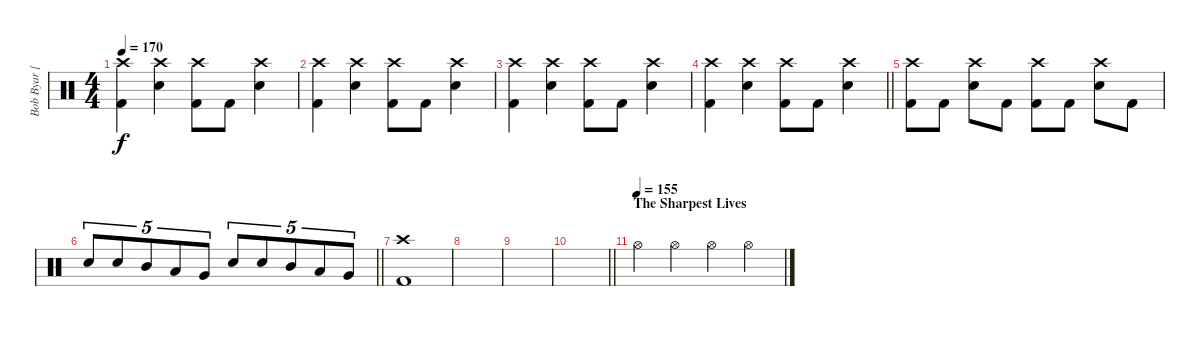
\track ("Bob Byar [Drums]" "Bob Byar [") {instrument percussion}
\staff {score}
\articulation defaults
\ts (4 4)
\tempo 170
\clef neutral
\ks c
("Crash high (hit)" "Kick (hit) 2").4{dy f} ("Crash high (hit)" "Electric Snare (hit)").4 ("Crash high (hit)" "Kick (hit) 2").8 "Kick (hit) 2".8 ("Crash high (hit)" "Electric Snare (hit)").4 |
("Crash high (hit)" "Kick (hit) 2").4 ("Crash high (hit)" "Electric Snare (hit)").4 ("Crash high (hit)" "Kick (hit) 2").8 "Kick (hit) 2".8 ("Crash high (hit)" "Electric Snare (hit)").4 |
("Crash high (hit)" "Kick (hit) 2").4 ("Crash high (hit)" "Electric Snare (hit)").4 ("Crash high (hit)" "Kick (hit) 2").8 "Kick (hit) 2".8 ("Crash high (hit)" "Electric Snare (hit)").4 |
\barLineRight lightlight
("Crash high (hit)" "Kick (hit) 2").4 ("Crash high (hit)" "Electric Snare (hit)").4 ("Crash high (hit)" "Kick (hit) 2").8 "Kick (hit) 2".8 ("Crash high (hit)" "Electric Snare (hit)").4 |
("Crash high (hit)" "Kick (hit) 2").8 "Kick (hit) 2".8 ("Crash high (hit)" "Electric Snare (hit)").8 "Kick (hit) 2".8 ("Crash high (hit)" "Kick (hit) 2").8 "Kick (hit) 2".8 ("Crash high (hit)" "Electric Snare (hit)").8 "Kick (hit) 2".8 |
\barLineRight lightlight "Electric Snare (hit)".8{tu (5 4)} "Electric Snare (hit)".8{tu (5 4)} "Mid Tom (hit)".8{tu (5 4)} "Low Tom (hit)".8{tu (5 4)} "Very Low Tom (hit)".8{tu (5 4)} "Electric Snare (hit)".8{tu (5 4)} "Electric Snare (hit)".8{tu (5 4)} "Mid Tom (hit)".8{tu (5 4)} "Low Tom (hit)".8{tu (5 4)} "Very Low Tom (hit)".8{tu (5 4)}
|
("Crash high (hit)" "Kick (hit) 2").1 |
|
|
\barLineRight lightlight
|
\section ("" "The Sharpest Lives")
\tempo (155)
"Hi-Hat (open)".4 "Hi-Hat (open)".4 "Hi-Hat (open)".4 "Hi-Hat (open)".4
